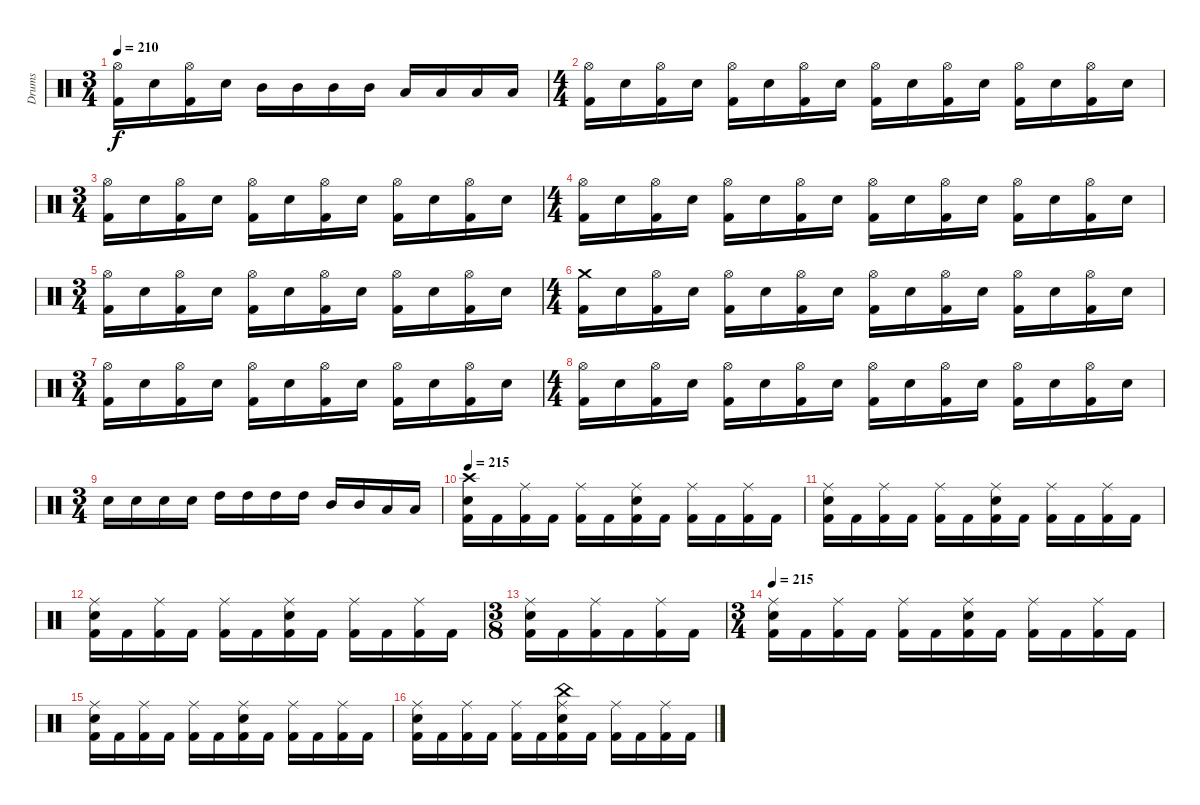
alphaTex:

\track ("Drums" "Drums") {instrument percussion}
\staff {score}
\articulation defaults
\ts (3 4)
\tempo 210
\clef neutral
\ks c
("Kick (hit) 2" "Hi-Hat (open)").16{dy f} "Electric Snare (hit)".16 ("Kick (hit) 2" "Hi-Hat (open)").16 "Electric Snare (hit)".16 "Mid Tom (hit)".16 "Mid Tom (hit)".16 "Mid Tom (hit)".16 "Mid Tom (hit)".16 "Low Tom (hit)".16 "Low Tom (hit)".16 "Low Tom (hit)".16 "Low Tom (hit)".16 |
\ts (4 4)
("Kick (hit) 2" "Hi-Hat (open)").16 "Electric Snare (hit)".16 ("Kick (hit) 2" "Hi-Hat (open)").16 "Electric Snare (hit)".16 ("Kick (hit) 2" "Hi-Hat (open)").16 "Electric Snare (hit)".16 ("Kick (hit) 2" "Hi-Hat (open)").16 "Electric Snare (hit)".16 ("Kick (hit) 2" "Hi-Hat (open)").16 "Electric Snare (hit)".16 ("Kick (hit) 2" "Hi-Hat (open)").16 "Electric Snare (hit)".16 ("Kick (hit) 2" "Hi-Hat (open)").16 "Electric Snare (hit)".16 ("Kick (hit) 2" "Hi-Hat (open)").16 "Electric Snare (hit)".16 |
\ts (3 4)
("Kick (hit) 2" "Hi-Hat (open)").16 "Electric Snare (hit)".16 ("Kick (hit) 2" "Hi-Hat (open)").16 "Electric Snare (hit)".16 ("Kick (hit) 2" "Hi-Hat (open)").16 "Electric Snare (hit)".16 ("Kick (hit) 2" "Hi-Hat (open)").16 "Electric Snare (hit)".16 ("Kick (hit) 2" "Hi-Hat (open)").16 "Electric Snare (hit)".16 ("Kick (hit) 2" "Hi-Hat (open)").16 "Electric Snare (hit)".16 |
\ts (4 4)
("Kick (hit) 2" "Hi-Hat (open)").16 "Electric Snare (hit)".16 ("Kick (hit) 2" "Hi-Hat (open)").16 "Electric Snare (hit)".16 ("Kick (hit) 2" "Hi-Hat (open)").16 "Electric Snare (hit)".16 ("Kick (hit) 2" "Hi-Hat (open)").16 "Electric Snare (hit)".16 ("Kick (hit) 2" "Hi-Hat (open)").16 "Electric Snare (hit)".16 ("Kick (hit) 2" "Hi-Hat (open)").16 "Electric Snare (hit)".16 ("Kick (hit) 2" "Hi-Hat (open)").16 "Electric Snare (hit)".16 ("Kick (hit) 2" "Hi-Hat (open)").16 "Electric Snare (hit)".16 |
\ts (3 4)
("Kick (hit) 2" "Hi-Hat (open)").16 "Electric Snare (hit)".16 ("Kick (hit) 2" "Hi-Hat (open)").16 "Electric Snare (hit)".16 ("Kick (hit) 2" "Hi-Hat (open)").16 "Electric Snare (hit)".16 ("Kick (hit) 2" "Hi-Hat (open)").16 "Electric Snare (hit)".16 ("Kick (hit) 2" "Hi-Hat (open)").16 "Electric Snare (hit)".16 ("Kick (hit) 2" "Hi-Hat (open)").16 "Electric Snare (hit)".16 |
\ts (4 4)
("Kick (hit) 2" "Crash medium (hit)").16 "Electric Snare (hit)".16 ("Kick (hit) 2" "Hi-Hat (open)").16 "Electric Snare (hit)".16 ("Kick (hit) 2" "Hi-Hat (open)").16 "Electric Snare (hit)".16 ("Kick (hit) 2" "Hi-Hat (open)").16 "Electric Snare (hit)".16 ("Kick (hit) 2" "Hi-Hat (open)").16 "Electric Snare (hit)".16 ("Kick (hit) 2" "Hi-Hat (open)").16 "Electric Snare (hit)".16 ("Kick (hit) 2" "Hi-Hat (open)").16 "Electric Snare (hit)".16 ("Kick (hit) 2" "Hi-Hat (open)").16 "Electric Snare (hit)".16 |
\ts (3 4)
("Kick (hit) 2" "Hi-Hat (open)").16 "Electric Snare (hit)".16 ("Kick (hit) 2" "Hi-Hat (open)").16 "Electric Snare (hit)".16 ("Kick (hit) 2" "Hi-Hat (open)").16 "Electric Snare (hit)".16 ("Kick (hit) 2" "Hi-Hat (open)").16 "Electric Snare (hit)".16 ("Kick (hit) 2" "Hi-Hat (open)").16 "Electric Snare (hit)".16 ("Kick (hit) 2" "Hi-Hat (open)").16 "Electric Snare (hit)".16 |
\ts (4 4)
("Kick (hit) 2" "Hi-Hat (open)").16 "Electric Snare (hit)".16 ("Kick (hit) 2" "Hi-Hat (open)").16 "Electric Snare (hit)".16 ("Kick (hit) 2" "Hi-Hat (open)").16 "Electric Snare (hit)".16 ("Kick (hit) 2" "Hi-Hat (open)").16 "Electric Snare (hit)".16 ("Kick (hit) 2" "Hi-Hat (open)").16 "Electric Snare (hit)".16 ("Kick (hit) 2" "Hi-Hat (open)").16 "Electric Snare (hit)".16 ("Kick (hit) 2" "Hi-Hat (open)").16 "Electric Snare (hit)".16 ("Kick (hit) 2" "Hi-Hat (open)").16 "Electric Snare (hit)".16 |
\ts (3 4)
"Electric Snare (hit)".16 "Electric Snare (hit)".16 "Electric Snare (hit)".16 "Electric Snare (hit)".16 "High Tom (hit)".16 "High Tom (hit)".16 "High Tom (hit)".16 "High Tom (hit)".16 "Mid Tom (hit)".16 "Mid Tom (hit)".16 "Low Tom (hit)".16 "Low Tom (hit)".16 |
\tempo 215
("Kick (hit) 2" "Electric Snare (hit)" "Crash high (hit)").16 "Kick (hit) 2".16 ("Kick (hit) 2" "Ride (middle)").16 "Kick (hit) 2".16 ("Kick (hit) 2" "Ride (middle)").16 "Kick (hit) 2".16 ("Kick (hit) 2" "Electric Snare (hit)" "Ride (middle)").16 "Kick (hit) 2".16 ("Kick (hit) 2" "Ride (middle)").16 "Kick (hit) 2".16 ("Kick (hit) 2" "Ride (middle)").16 "Kick (hit) 2".16 |
("Kick (hit) 2" "Electric Snare (hit)" "Ride (middle)").16 "Kick (hit) 2".16 ("Kick (hit) 2" "Ride (middle)").16 "Kick (hit) 2".16 ("Kick (hit) 2" "Ride (middle)").16 "Kick (hit) 2".16 ("Kick (hit) 2" "Electric Snare (hit)" "Ride (middle)").16 "Kick (hit) 2".16 ("Kick (hit) 2" "Ride (middle)").16 "Kick (hit) 2".16 ("Kick (hit) 2" "Ride (middle)").16 "Kick (hit) 2".16 |
("Kick (hit) 2" "Electric Snare (hit)" "Ride (middle)").16 "Kick (hit) 2".16 ("Kick (hit) 2" "Ride (middle)").16 "Kick (hit) 2".16 ("Kick (hit) 2" "Ride (middle)").16 "Kick (hit) 2".16 ("Kick (hit) 2" "Electric Snare (hit)" "Ride (middle)").16 "Kick (hit) 2".16 ("Kick (hit) 2" "Ride (middle)").16 "Kick (hit) 2".16 ("Kick (hit) 2" "Ride (middle)").16 "Kick (hit) 2".16 |
\ts (3 8)
("Kick (hit) 2" "Electric Snare (hit)" "Ride (middle)").16 "Kick (hit) 2".16 ("Kick (hit) 2" "Ride (middle)").16 "Kick (hit) 2".16 ("Kick (hit) 2" "Ride (middle)").16 "Kick (hit) 2".16 |
\ts (3 4)
\tempo 215
("Kick (hit) 2" "Electric Snare (hit)" "Ride (middle)").16 "Kick (hit) 2".16 ("Kick (hit) 2" "Ride (middle)").16 "Kick (hit) 2".16 ("Kick (hit) 2" "Ride (middle)").16 "Kick (hit) 2".16 ("Kick (hit) 2" "Electric Snare (hit)" "Ride (middle)").16 "Kick (hit) 2".16 ("Kick (hit) 2" "Ride (middle)").16 "Kick (hit) 2".16 ("Kick (hit) 2" "Ride (middle)").16 "Kick (hit) 2".16 |
("Kick (hit) 2" "Electric Snare (hit)" "Ride (middle)").16 "Kick (hit) 2".16 ("Kick (hit) 2" "Ride (middle)").16 "Kick (hit) 2".16 ("Kick (hit) 2" "Ride (middle)").16 "Kick (hit) 2".16 ("Kick (hit) 2" "Electric Snare (hit)" "Ride (middle)").16 "Kick (hit) 2".16 ("Kick (hit) 2" "Ride (middle)").16 "Kick (hit) 2".16 ("Kick (hit) 2" "Ride (middle)").16 "Kick (hit) 2".16 |
("Kick (hit) 2" "Electric Snare (hit)" "Ride (middle)").16 "Kick (hit) 2".16 ("Kick (hit) 2" "Ride (middle)").16 "Kick (hit) 2".16 ("Kick (hit) 2" "Ride (middle)").16 "Kick (hit) 2".16 ("Kick (hit) 2" "Electric Snare (hit)" "Ride (middle)" "China (hit)").16 "Kick (hit) 2".16 ("Kick (hit) 2" "Ride (middle)").16 "Kick (hit) 2".16 ("Kick (hit) 2" "Ride (middle)").16 "Kick (hit) 2".16
